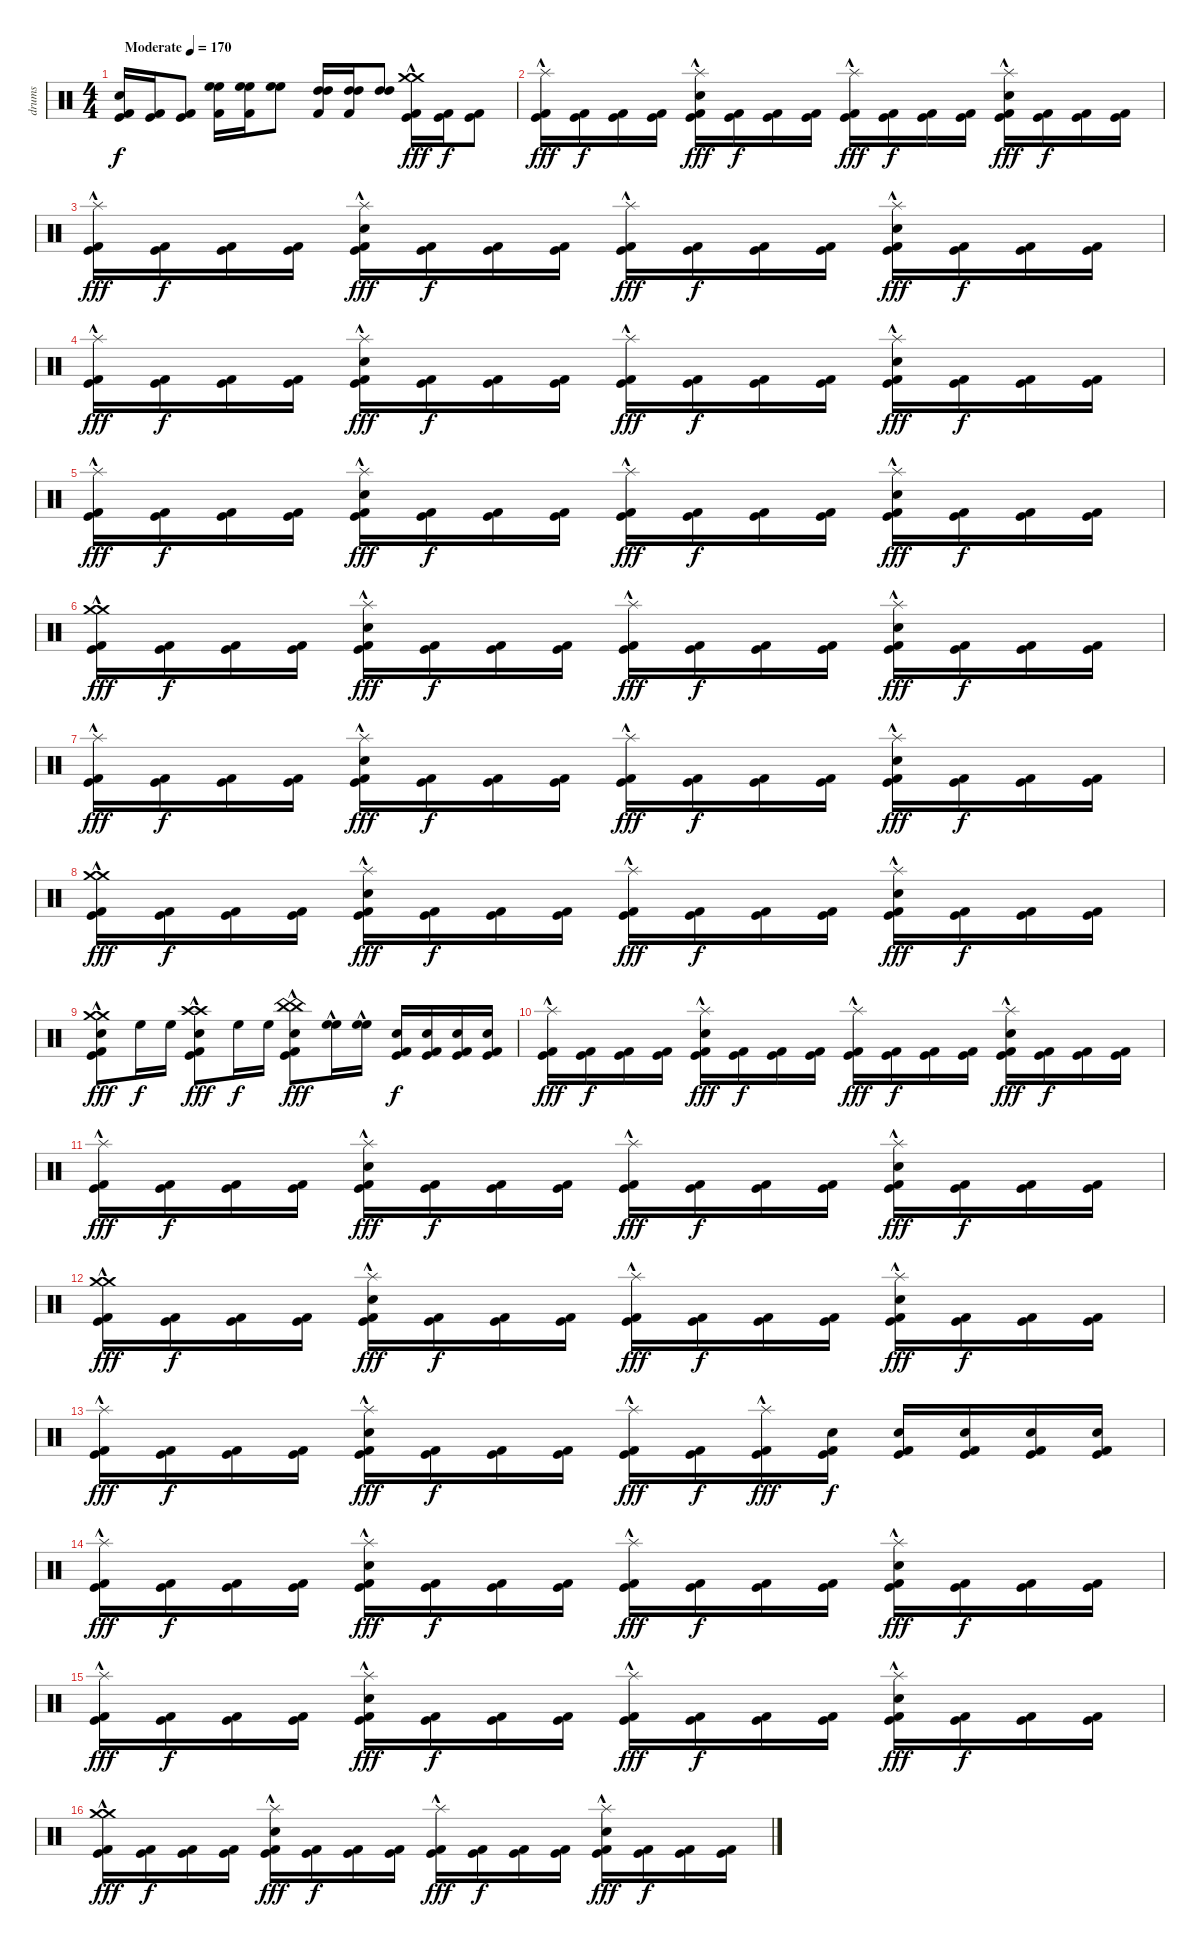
\track ("drums" "drums") {instrument percussion}
\staff {score}
\articulation defaults
\ts (4 4)
\tempo (170 "Moderate")
\clef neutral
\ks c
("Kick (hit) 2" "Kick (hit)" "Electric Snare (hit)").16{dy f} ("Kick (hit) 2" "Kick (hit)").16 ("Kick (hit)" "Kick (hit) 2").8 ("Kick (hit) 2" "High Floor Tom (hit)" "High Floor Tom (hit)").16 ("Kick (hit) 2" "High Floor Tom (hit)" "High Floor Tom (hit)").16 ("High Floor Tom (hit)" "High Floor Tom (hit)").8 ("Kick (hit) 2" "High Tom (hit)" "High Tom (hit)").16 ("Kick (hit) 2" "High Tom (hit)" "High Tom (hit)").16 ("High Tom (hit)" "High Tom (hit)").8 ("Kick (hit) 2" "Kick (hit)" "Crash medium (hit)"{hac} "Crash medium (hit)"{hac}).16{dy fff} ("Kick (hit) 2" "Kick (hit)").16{dy f} ("Kick (hit) 2" "Kick (hit)").8 |
("Kick (hit) 2" "Kick (hit)" "Splash (hit)"{hac}).16{dy fff} ("Kick (hit) 2" "Kick (hit)").16{dy f} ("Kick (hit) 2" "Kick (hit)").16 ("Kick (hit) 2" "Kick (hit)").16 ("Kick (hit) 2" "Kick (hit)" "Electric Snare (hit)" "Splash (hit)"{hac}).16{dy fff} ("Kick (hit) 2" "Kick (hit)").16{dy f} ("Kick (hit) 2" "Kick (hit)").16 ("Kick (hit) 2" "Kick (hit)").16 ("Kick (hit) 2" "Kick (hit)" "Splash (hit)"{hac}).16{dy fff} ("Kick (hit) 2" "Kick (hit)").16{dy f} ("Kick (hit) 2" "Kick (hit)").16 ("Kick (hit) 2" "Kick (hit)").16 ("Kick (hit) 2" "Kick (hit)" "Electric Snare (hit)" "Splash (hit)"{hac}).16{dy fff} ("Kick (hit) 2" "Kick (hit)").16{dy f} ("Kick (hit) 2" "Kick (hit)").16 ("Kick (hit) 2" "Kick (hit)").16 |
("Kick (hit) 2" "Kick (hit)" "Splash (hit)"{hac}).16{dy fff} ("Kick (hit) 2" "Kick (hit)").16{dy f} ("Kick (hit) 2" "Kick (hit)").16 ("Kick (hit) 2" "Kick (hit)").16 ("Kick (hit) 2" "Kick (hit)" "Electric Snare (hit)" "Splash (hit)"{hac}).16{dy fff} ("Kick (hit) 2" "Kick (hit)").16{dy f} ("Kick (hit) 2" "Kick (hit)").16 ("Kick (hit) 2" "Kick (hit)").16 ("Kick (hit) 2" "Kick (hit)" "Splash (hit)"{hac}).16{dy fff} ("Kick (hit) 2" "Kick (hit)").16{dy f} ("Kick (hit) 2" "Kick (hit)").16 ("Kick (hit) 2" "Kick (hit)").16 ("Kick (hit) 2" "Kick (hit)" "Electric Snare (hit)" "Splash (hit)"{hac}).16{dy fff} ("Kick (hit) 2" "Kick (hit)").16{dy f} ("Kick (hit) 2" "Kick (hit)").16 ("Kick (hit) 2" "Kick (hit)").16 |
("Kick (hit) 2" "Kick (hit)" "Splash (hit)"{hac}).16{dy fff} ("Kick (hit) 2" "Kick (hit)").16{dy f} ("Kick (hit) 2" "Kick (hit)").16 ("Kick (hit) 2" "Kick (hit)").16 ("Kick (hit) 2" "Kick (hit)" "Electric Snare (hit)" "Splash (hit)"{hac}).16{dy fff} ("Kick (hit) 2" "Kick (hit)").16{dy f} ("Kick (hit) 2" "Kick (hit)").16 ("Kick (hit) 2" "Kick (hit)").16 ("Kick (hit) 2" "Kick (hit)" "Splash (hit)"{hac}).16{dy fff} ("Kick (hit) 2" "Kick (hit)").16{dy f} ("Kick (hit) 2" "Kick (hit)").16 ("Kick (hit) 2" "Kick (hit)").16 ("Kick (hit) 2" "Kick (hit)" "Electric Snare (hit)" "Splash (hit)"{hac}).16{dy fff} ("Kick (hit) 2" "Kick (hit)").16{dy f} ("Kick (hit) 2" "Kick (hit)").16 ("Kick (hit) 2" "Kick (hit)").16 |
("Kick (hit) 2" "Kick (hit)" "Splash (hit)"{hac}).16{dy fff} ("Kick (hit) 2" "Kick (hit)").16{dy f} ("Kick (hit) 2" "Kick (hit)").16 ("Kick (hit) 2" "Kick (hit)").16 ("Kick (hit) 2" "Kick (hit)" "Electric Snare (hit)" "Splash (hit)"{hac}).16{dy fff} ("Kick (hit) 2" "Kick (hit)").16{dy f} ("Kick (hit) 2" "Kick (hit)").16 ("Kick (hit) 2" "Kick (hit)").16 ("Kick (hit) 2" "Kick (hit)" "Splash (hit)"{hac}).16{dy fff} ("Kick (hit) 2" "Kick (hit)").16{dy f} ("Kick (hit) 2" "Kick (hit)").16 ("Kick (hit) 2" "Kick (hit)").16 ("Kick (hit) 2" "Kick (hit)" "Electric Snare (hit)" "Splash (hit)"{hac}).16{dy fff} ("Kick (hit) 2" "Kick (hit)").16{dy f} ("Kick (hit) 2" "Kick (hit)").16 ("Kick (hit) 2" "Kick (hit)").16 |
("Kick (hit) 2" "Kick (hit)" "Crash medium (hit)"{hac} "Crash medium (hit)"{hac}).16{dy fff} ("Kick (hit) 2" "Kick (hit)").16{dy f} ("Kick (hit) 2" "Kick (hit)").16 ("Kick (hit) 2" "Kick (hit)").16 ("Kick (hit) 2" "Kick (hit)" "Electric Snare (hit)" "Splash (hit)"{hac}).16{dy fff} ("Kick (hit) 2" "Kick (hit)").16{dy f} ("Kick (hit) 2" "Kick (hit)").16 ("Kick (hit) 2" "Kick (hit)").16 ("Kick (hit) 2" "Kick (hit)" "Splash (hit)"{hac}).16{dy fff} ("Kick (hit) 2" "Kick (hit)").16{dy f} ("Kick (hit) 2" "Kick (hit)").16 ("Kick (hit) 2" "Kick (hit)").16 ("Kick (hit) 2" "Kick (hit)" "Electric Snare (hit)" "Splash (hit)"{hac}).16{dy fff} ("Kick (hit) 2" "Kick (hit)").16{dy f} ("Kick (hit) 2" "Kick (hit)").16 ("Kick (hit) 2" "Kick (hit)").16 |
("Kick (hit) 2" "Kick (hit)" "Splash (hit)"{hac}).16{dy fff} ("Kick (hit) 2" "Kick (hit)").16{dy f} ("Kick (hit) 2" "Kick (hit)").16 ("Kick (hit) 2" "Kick (hit)").16 ("Kick (hit) 2" "Kick (hit)" "Electric Snare (hit)" "Splash (hit)"{hac}).16{dy fff} ("Kick (hit) 2" "Kick (hit)").16{dy f} ("Kick (hit) 2" "Kick (hit)").16 ("Kick (hit) 2" "Kick (hit)").16 ("Kick (hit) 2" "Kick (hit)" "Splash (hit)"{hac}).16{dy fff} ("Kick (hit) 2" "Kick (hit)").16{dy f} ("Kick (hit) 2" "Kick (hit)").16 ("Kick (hit) 2" "Kick (hit)").16 ("Kick (hit) 2" "Kick (hit)" "Electric Snare (hit)" "Splash (hit)"{hac}).16{dy fff} ("Kick (hit) 2" "Kick (hit)").16{dy f} ("Kick (hit) 2" "Kick (hit)").16 ("Kick (hit) 2" "Kick (hit)").16 |
("Kick (hit) 2" "Kick (hit)" "Crash medium (hit)" "Crash medium (hit)"{hac}).16{dy fff} ("Kick (hit) 2" "Kick (hit)").16{dy f} ("Kick (hit) 2" "Kick (hit)").16 ("Kick (hit) 2" "Kick (hit)").16 ("Kick (hit) 2" "Kick (hit)" "Electric Snare (hit)" "Splash (hit)"{hac}).16{dy fff} ("Kick (hit) 2" "Kick (hit)").16{dy f} ("Kick (hit) 2" "Kick (hit)").16 ("Kick (hit) 2" "Kick (hit)").16 ("Kick (hit) 2" "Kick (hit)" "Splash (hit)"{hac}).16{dy fff} ("Kick (hit) 2" "Kick (hit)").16{dy f} ("Kick (hit) 2" "Kick (hit)").16 ("Kick (hit) 2" "Kick (hit)").16 ("Kick (hit) 2" "Kick (hit)" "Electric Snare (hit)" "Splash (hit)"{hac}).16{dy fff} ("Kick (hit) 2" "Kick (hit)").16{dy f} ("Kick (hit) 2" "Kick (hit)").16 ("Kick (hit) 2" "Kick (hit)").16 |
("Kick (hit) 2" "Kick (hit)" "Snare (hit) 2" "Crash medium (hit)"{hac} "Crash medium (hit)"{hac}).8{dy fff} "High Floor Tom (hit)".16{dy f} "High Floor Tom (hit)".16 ("Kick (hit) 2" "Kick (hit)" "Snare (hit) 2" "Crash high (hit)"{hac} "Crash high (hit)"{hac}).8{dy fff} "High Floor Tom (hit)".16{dy f} "High Floor Tom (hit)".16 ("Kick (hit) 2" "Kick (hit)" "Snare (hit) 2" "China (hit)"{hac} "China (hit)"{hac}).8{dy fff} ("High Floor Tom (hit)"{hac} "High Floor Tom (hit)"{hac}).16 ("High Floor Tom (hit)"{hac} "High Floor Tom (hit)"{hac}).16 ("Kick (hit) 2" "Kick (hit)" "Electric Snare (hit)").16{dy f} ("Kick (hit) 2" "Kick (hit)" "Electric Snare (hit)").16 ("Kick (hit) 2" "Kick (hit)" "Electric Snare (hit)").16 ("Kick (hit) 2" "Kick (hit)" "Electric Snare (hit)").16 |
("Kick (hit) 2" "Kick (hit)" "Splash (hit)"{hac}).16{dy fff} ("Kick (hit) 2" "Kick (hit)").16{dy f} ("Kick (hit) 2" "Kick (hit)").16 ("Kick (hit) 2" "Kick (hit)").16 ("Kick (hit) 2" "Kick (hit)" "Electric Snare (hit)" "Splash (hit)"{hac}).16{dy fff} ("Kick (hit) 2" "Kick (hit)").16{dy f} ("Kick (hit) 2" "Kick (hit)").16 ("Kick (hit) 2" "Kick (hit)").16 ("Kick (hit) 2" "Kick (hit)" "Splash (hit)"{hac}).16{dy fff} ("Kick (hit) 2" "Kick (hit)").16{dy f} ("Kick (hit) 2" "Kick (hit)").16 ("Kick (hit) 2" "Kick (hit)").16 ("Kick (hit) 2" "Kick (hit)" "Electric Snare (hit)" "Splash (hit)"{hac}).16{dy fff} ("Kick (hit) 2" "Kick (hit)").16{dy f} ("Kick (hit) 2" "Kick (hit)").16 ("Kick (hit) 2" "Kick (hit)").16 |
("Kick (hit) 2" "Kick (hit)" "Splash (hit)"{hac}).16{dy fff} ("Kick (hit) 2" "Kick (hit)").16{dy f} ("Kick (hit) 2" "Kick (hit)").16 ("Kick (hit) 2" "Kick (hit)").16 ("Kick (hit) 2" "Kick (hit)" "Electric Snare (hit)" "Splash (hit)"{hac}).16{dy fff} ("Kick (hit) 2" "Kick (hit)").16{dy f} ("Kick (hit) 2" "Kick (hit)").16 ("Kick (hit) 2" "Kick (hit)").16 ("Kick (hit) 2" "Kick (hit)" "Splash (hit)"{hac}).16{dy fff} ("Kick (hit) 2" "Kick (hit)").16{dy f} ("Kick (hit) 2" "Kick (hit)").16 ("Kick (hit) 2" "Kick (hit)").16 ("Kick (hit) 2" "Kick (hit)" "Electric Snare (hit)" "Splash (hit)"{hac}).16{dy fff} ("Kick (hit) 2" "Kick (hit)").16{dy f} ("Kick (hit) 2" "Kick (hit)").16 ("Kick (hit) 2" "Kick (hit)").16 |
("Kick (hit) 2" "Kick (hit)" "Crash medium (hit)"{hac} "Crash medium (hit)"{hac}).16{dy fff} ("Kick (hit) 2" "Kick (hit)").16{dy f} ("Kick (hit) 2" "Kick (hit)").16 ("Kick (hit) 2" "Kick (hit)").16 ("Kick (hit) 2" "Kick (hit)" "Electric Snare (hit)" "Splash (hit)"{hac}).16{dy fff} ("Kick (hit) 2" "Kick (hit)").16{dy f} ("Kick (hit) 2" "Kick (hit)").16 ("Kick (hit) 2" "Kick (hit)").16 ("Kick (hit) 2" "Kick (hit)" "Splash (hit)"{hac}).16{dy fff} ("Kick (hit) 2" "Kick (hit)").16{dy f} ("Kick (hit) 2" "Kick (hit)").16 ("Kick (hit) 2" "Kick (hit)").16 ("Kick (hit) 2" "Kick (hit)" "Electric Snare (hit)" "Splash (hit)"{hac}).16{dy fff} ("Kick (hit) 2" "Kick (hit)").16{dy f} ("Kick (hit) 2" "Kick (hit)").16 ("Kick (hit) 2" "Kick (hit)").16 |
("Kick (hit) 2" "Kick (hit)" "Splash (hit)"{hac}).16{dy fff} ("Kick (hit) 2" "Kick (hit)").16{dy f} ("Kick (hit) 2" "Kick (hit)").16 ("Kick (hit) 2" "Kick (hit)").16 ("Kick (hit) 2" "Kick (hit)" "Electric Snare (hit)" "Splash (hit)"{hac}).16{dy fff} ("Kick (hit) 2" "Kick (hit)").16{dy f} ("Kick (hit) 2" "Kick (hit)").16 ("Kick (hit) 2" "Kick (hit)").16 ("Kick (hit) 2" "Kick (hit)" "Splash (hit)"{hac}).16{dy fff} ("Kick (hit) 2" "Kick (hit)").16{dy f} ("Kick (hit) 2" "Kick (hit)" "Splash (hit)"{hac}).16{dy fff} ("Kick (hit) 2" "Kick (hit)" "Snare (hit) 2").16{dy f} ("Kick (hit) 2" "Kick (hit)" "Snare (hit) 2").16 ("Kick (hit) 2" "Kick (hit)" "Snare (hit) 2").16 ("Kick (hit) 2" "Kick (hit)" "Snare (hit) 2").16 ("Kick (hit) 2" "Kick (hit)" "Snare (hit) 2").16 |
("Kick (hit) 2" "Kick (hit)" "Splash (hit)"{hac}).16{dy fff} ("Kick (hit) 2" "Kick (hit)").16{dy f} ("Kick (hit) 2" "Kick (hit)").16 ("Kick (hit) 2" "Kick (hit)").16 ("Kick (hit) 2" "Kick (hit)" "Electric Snare (hit)" "Splash (hit)"{hac}).16{dy fff} ("Kick (hit) 2" "Kick (hit)").16{dy f} ("Kick (hit) 2" "Kick (hit)").16 ("Kick (hit) 2" "Kick (hit)").16 ("Kick (hit) 2" "Kick (hit)" "Splash (hit)"{hac}).16{dy fff} ("Kick (hit) 2" "Kick (hit)").16{dy f} ("Kick (hit) 2" "Kick (hit)").16 ("Kick (hit) 2" "Kick (hit)").16 ("Kick (hit) 2" "Kick (hit)" "Electric Snare (hit)" "Splash (hit)"{hac}).16{dy fff} ("Kick (hit) 2" "Kick (hit)").16{dy f} ("Kick (hit) 2" "Kick (hit)").16 ("Kick (hit) 2" "Kick (hit)").16 |
("Kick (hit) 2" "Kick (hit)" "Splash (hit)"{hac}).16{dy fff} ("Kick (hit) 2" "Kick (hit)").16{dy f} ("Kick (hit) 2" "Kick (hit)").16 ("Kick (hit) 2" "Kick (hit)").16 ("Kick (hit) 2" "Kick (hit)" "Electric Snare (hit)" "Splash (hit)"{hac}).16{dy fff} ("Kick (hit) 2" "Kick (hit)").16{dy f} ("Kick (hit) 2" "Kick (hit)").16 ("Kick (hit) 2" "Kick (hit)").16 ("Kick (hit) 2" "Kick (hit)" "Splash (hit)"{hac}).16{dy fff} ("Kick (hit) 2" "Kick (hit)").16{dy f} ("Kick (hit) 2" "Kick (hit)").16 ("Kick (hit) 2" "Kick (hit)").16 ("Kick (hit) 2" "Kick (hit)" "Electric Snare (hit)" "Splash (hit)"{hac}).16{dy fff} ("Kick (hit) 2" "Kick (hit)").16{dy f} ("Kick (hit) 2" "Kick (hit)").16 ("Kick (hit) 2" "Kick (hit)").16 |
("Kick (hit) 2" "Kick (hit)" "Crash medium (hit)" "Crash medium (hit)"{hac}).16{dy fff} ("Kick (hit) 2" "Kick (hit)").16{dy f} ("Kick (hit) 2" "Kick (hit)").16 ("Kick (hit) 2" "Kick (hit)").16 ("Kick (hit) 2" "Kick (hit)" "Electric Snare (hit)" "Splash (hit)"{hac}).16{dy fff} ("Kick (hit) 2" "Kick (hit)").16{dy f} ("Kick (hit) 2" "Kick (hit)").16 ("Kick (hit) 2" "Kick (hit)").16 ("Kick (hit) 2" "Kick (hit)" "Splash (hit)"{hac}).16{dy fff} ("Kick (hit) 2" "Kick (hit)").16{dy f} ("Kick (hit) 2" "Kick (hit)").16 ("Kick (hit) 2" "Kick (hit)").16 ("Kick (hit) 2" "Kick (hit)" "Electric Snare (hit)" "Splash (hit)"{hac}).16{dy fff} ("Kick (hit) 2" "Kick (hit)").16{dy f} ("Kick (hit) 2" "Kick (hit)").16 ("Kick (hit) 2" "Kick (hit)").16
